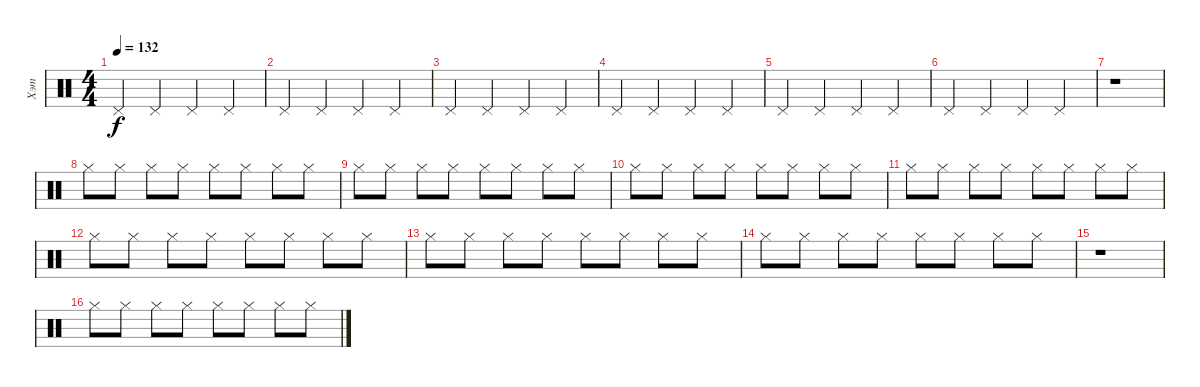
\track ("Хэт" "Хэт") {instrument percussion}
\staff {score}
\articulation defaults
\ts (4 4)
\tempo 132
\clef neutral
\ks c "Pedal Hi-Hat (hit)".4{dy f} "Pedal Hi-Hat (hit)".4 "Pedal Hi-Hat (hit)".4 "Pedal Hi-Hat (hit)".4
|
"Pedal Hi-Hat (hit)".4 "Pedal Hi-Hat (hit)".4 "Pedal Hi-Hat (hit)".4 "Pedal Hi-Hat (hit)".4 |
"Pedal Hi-Hat (hit)".4 "Pedal Hi-Hat (hit)".4 "Pedal Hi-Hat (hit)".4 "Pedal Hi-Hat (hit)".4 |
"Pedal Hi-Hat (hit)".4 "Pedal Hi-Hat (hit)".4 "Pedal Hi-Hat (hit)".4 "Pedal Hi-Hat (hit)".4 |
"Pedal Hi-Hat (hit)".4 "Pedal Hi-Hat (hit)".4 "Pedal Hi-Hat (hit)".4 "Pedal Hi-Hat (hit)".4 |
"Pedal Hi-Hat (hit)".4 "Pedal Hi-Hat (hit)".4 "Pedal Hi-Hat (hit)".4 "Pedal Hi-Hat (hit)".4 |
r.1 |
"Hi-Hat (closed)".8 "Hi-Hat (closed)".8 "Hi-Hat (closed)".8 "Hi-Hat (closed)".8 "Hi-Hat (closed)".8 "Hi-Hat (closed)".8 "Hi-Hat (closed)".8 "Hi-Hat (closed)".8 |
"Hi-Hat (closed)".8 "Hi-Hat (closed)".8 "Hi-Hat (closed)".8 "Hi-Hat (closed)".8 "Hi-Hat (closed)".8 "Hi-Hat (closed)".8 "Hi-Hat (closed)".8 "Hi-Hat (closed)".8 |
"Hi-Hat (closed)".8 "Hi-Hat (closed)".8 "Hi-Hat (closed)".8 "Hi-Hat (closed)".8 "Hi-Hat (closed)".8 "Hi-Hat (closed)".8 "Hi-Hat (closed)".8 "Hi-Hat (closed)".8 |
"Hi-Hat (closed)".8 "Hi-Hat (closed)".8 "Hi-Hat (closed)".8 "Hi-Hat (closed)".8 "Hi-Hat (closed)".8 "Hi-Hat (closed)".8 "Hi-Hat (closed)".8 "Hi-Hat (closed)".8 |
"Hi-Hat (closed)".8 "Hi-Hat (closed)".8 "Hi-Hat (closed)".8 "Hi-Hat (closed)".8 "Hi-Hat (closed)".8 "Hi-Hat (closed)".8 "Hi-Hat (closed)".8 "Hi-Hat (closed)".8 |
"Hi-Hat (closed)".8 "Hi-Hat (closed)".8 "Hi-Hat (closed)".8 "Hi-Hat (closed)".8 "Hi-Hat (closed)".8 "Hi-Hat (closed)".8 "Hi-Hat (closed)".8 "Hi-Hat (closed)".8 |
"Hi-Hat (closed)".8 "Hi-Hat (closed)".8 "Hi-Hat (closed)".8 "Hi-Hat (closed)".8 "Hi-Hat (closed)".8 "Hi-Hat (closed)".8 "Hi-Hat (closed)".8 "Hi-Hat (closed)".8 |
r.1 |
"Hi-Hat (closed)".8 "Hi-Hat (closed)".8 "Hi-Hat (closed)".8 "Hi-Hat (closed)".8 "Hi-Hat (closed)".8 "Hi-Hat (closed)".8 "Hi-Hat (closed)".8 "Hi-Hat (closed)".8
